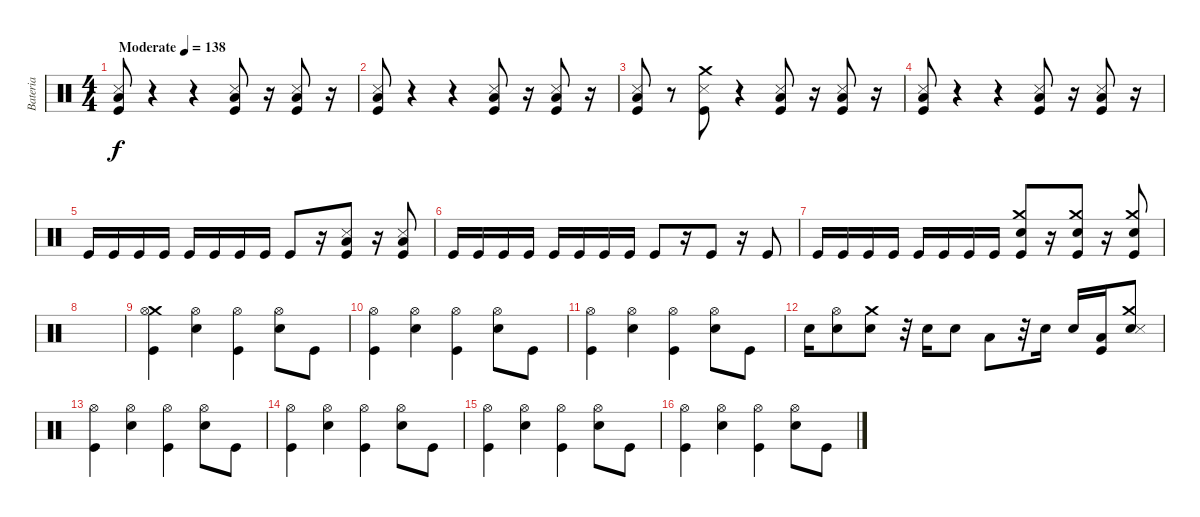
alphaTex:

\track ("Bateria" "Bateria") {instrument percussion}
\staff {score}
\articulation defaults
\ts (4 4)
\tempo (138 "Moderate")
\clef neutral
\ks c
("Snare (side stick) 3" "Low Floor Tom (hit)" "Kick (hit)").8{dy f} r.4 r.4 ("Snare (side stick) 3" "Low Floor Tom (hit)" "Kick (hit)").8 r.16 ("Snare (side stick) 3" "Low Floor Tom (hit)" "Kick (hit)").8 r.16 |
("Snare (side stick) 3" "Low Floor Tom (hit)" "Kick (hit)").8 r.4 r.4 ("Snare (side stick) 3" "Low Floor Tom (hit)" "Kick (hit)").8 r.16 ("Snare (side stick) 3" "Low Floor Tom (hit)" "Kick (hit)").8 r.16 |
("Snare (side stick) 3" "Low Floor Tom (hit)" "Kick (hit)").8 r.8 ("Crash medium (hit)" "Kick (hit)" "Snare (side stick) 3").8 r.4 ("Snare (side stick) 3" "Low Floor Tom (hit)" "Kick (hit)").8 r.16 ("Snare (side stick) 3" "Low Floor Tom (hit)" "Kick (hit)").8 r.16 |
("Snare (side stick) 3" "Low Floor Tom (hit)" "Kick (hit)").8 r.4 r.4 ("Snare (side stick) 3" "Low Floor Tom (hit)" "Kick (hit)").8 r.16 ("Snare (side stick) 3" "Low Floor Tom (hit)" "Kick (hit)").8 r.16 |
"Kick (hit)".16 "Kick (hit)".16 "Kick (hit)".16 "Kick (hit)".16 "Kick (hit)".16 "Kick (hit)".16 "Kick (hit)".16 "Kick (hit)".16 "Kick (hit)".8 r.16 ("Snare (side stick) 3" "Low Floor Tom (hit)" "Kick (hit)").8 r.16 ("Kick (hit)" "Low Floor Tom (hit)" "Snare (side stick) 3").8 |
"Kick (hit)".16 "Kick (hit)".16 "Kick (hit)".16 "Kick (hit)".16 "Kick (hit)".16 "Kick (hit)".16 "Kick (hit)".16 "Kick (hit)".16 "Kick (hit)".8 r.16 "Kick (hit)".8 r.16 "Kick (hit)".8 |
"Kick (hit)".16 "Kick (hit)".16 "Kick (hit)".16 "Kick (hit)".16 "Kick (hit)".16 "Kick (hit)".16 "Kick (hit)".16 "Kick (hit)".16 ("Kick (hit)" "Crash medium (hit)" "Snare (hit) 2").8 r.16 ("Kick (hit)" "Crash medium (hit)" "Snare (hit) 2").8 r.16 ("Kick (hit)" "Crash medium (hit)" "Snare (hit) 2").8 |
|
("Crash medium (hit)" "Hi-Hat (open)" "Kick (hit)").4 ("Snare (hit) 2" "Hi-Hat (open)").4 ("Hi-Hat (open)" "Kick (hit)").4 ("Snare (hit) 2" "Hi-Hat (open)").8 "Kick (hit)".8 |
("Hi-Hat (open)" "Kick (hit)").4 ("Snare (hit) 2" "Hi-Hat (open)").4 ("Hi-Hat (open)" "Kick (hit)").4 ("Snare (hit) 2" "Hi-Hat (open)").8 "Kick (hit)".8 |
("Hi-Hat (open)" "Kick (hit)").4 ("Snare (hit) 2" "Hi-Hat (open)").4 ("Hi-Hat (open)" "Kick (hit)").4 ("Snare (hit) 2" "Hi-Hat (open)").8 "Kick (hit)".8 |
"Snare (hit) 2".16 ("Snare (hit) 2" "Hi-Hat (open)").8 ("Crash medium (hit)" "Snare (hit) 2").8 r.32 "Snare (hit) 2".16 "Snare (hit) 2".8 "Low Tom (hit)".8 r.32 "Snare (hit) 2".16 "Snare (hit) 2".16 ("Low Tom (hit)" "Kick (hit)").16 ("Crash medium (hit)" "Snare (hit) 2" "Snare (side stick) 3").8 |
("Hi-Hat (open)" "Kick (hit)").4 ("Snare (hit) 2" "Hi-Hat (open)").4 ("Hi-Hat (open)" "Kick (hit)").4 ("Snare (hit) 2" "Hi-Hat (open)").8 "Kick (hit)".8 |
("Hi-Hat (open)" "Kick (hit)").4 ("Snare (hit) 2" "Hi-Hat (open)").4 ("Hi-Hat (open)" "Kick (hit)").4 ("Snare (hit) 2" "Hi-Hat (open)").8 "Kick (hit)".8 |
("Hi-Hat (open)" "Kick (hit)").4 ("Snare (hit) 2" "Hi-Hat (open)").4 ("Hi-Hat (open)" "Kick (hit)").4 ("Snare (hit) 2" "Hi-Hat (open)").8 "Kick (hit)".8 |
("Hi-Hat (open)" "Kick (hit)").4 ("Snare (hit) 2" "Hi-Hat (open)").4 ("Hi-Hat (open)" "Kick (hit)").4 ("Snare (hit) 2" "Hi-Hat (open)").8 "Kick (hit)".8
